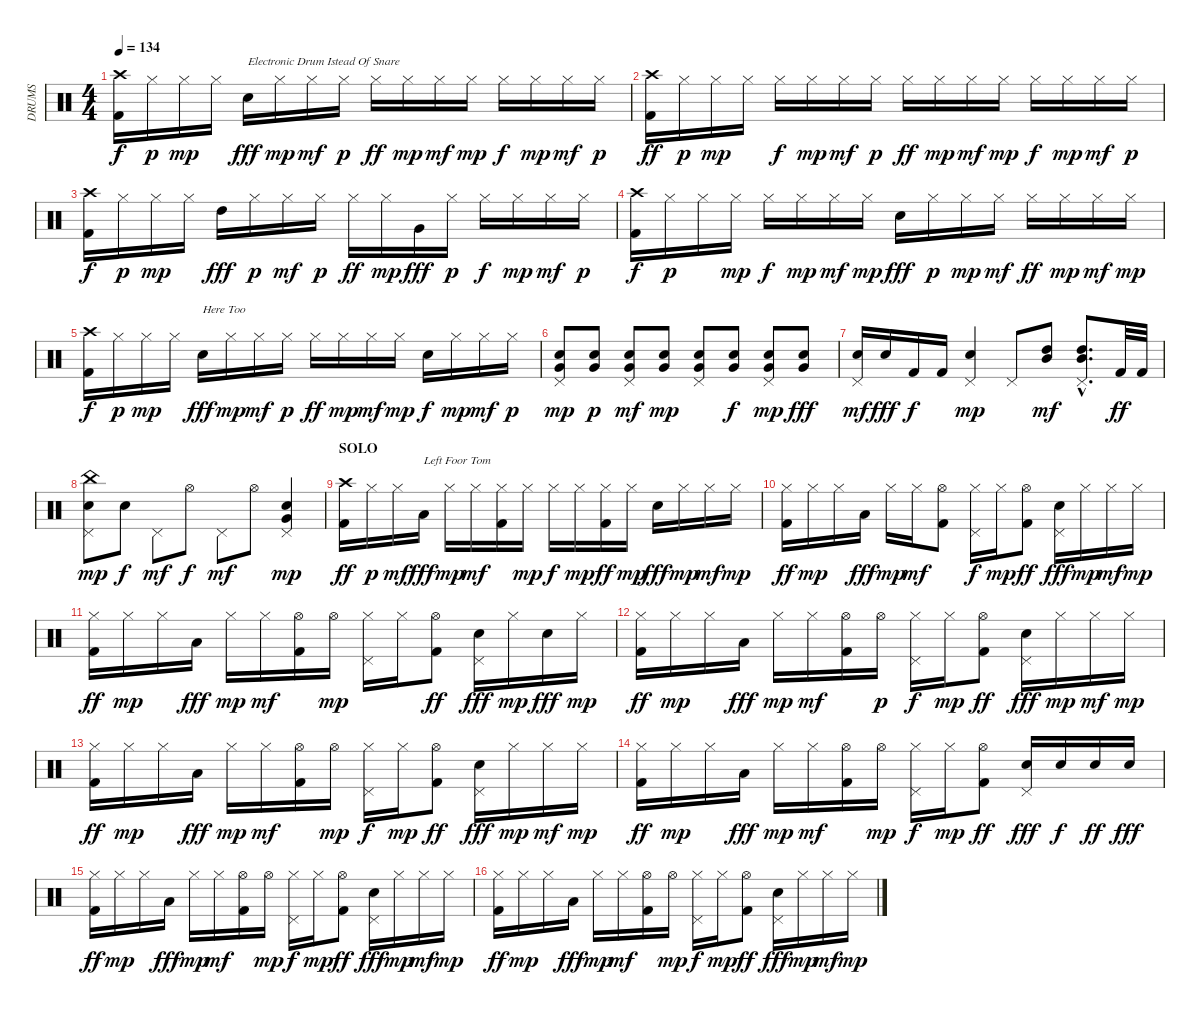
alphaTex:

\track ("DRUMS" "DRUMS") {instrument percussion}
\staff {score}
\articulation defaults
\ts (4 4)
\tempo 134
\clef neutral
\ks c
("Crash high (hit)" "Kick (hit) 2").16{dy f} "Hi-Hat (closed)".16{dy p} "Hi-Hat (closed)".16{dy mp} "Hi-Hat (closed)".16 "Snare (hit) 2".16{txt "Electronic Drum Istead Of Snare" dy fff} "Hi-Hat (closed)".16{dy mp} "Hi-Hat (closed)".16{dy mf} "Hi-Hat (closed)".16{dy p} "Hi-Hat (closed)".16{dy ff} "Hi-Hat (closed)".16{dy mp} "Hi-Hat (closed)".16{dy mf} "Hi-Hat (closed)".16{dy mp} "Hi-Hat (closed)".16{dy f} "Hi-Hat (closed)".16{dy mp} "Hi-Hat (closed)".16{dy mf} "Hi-Hat (closed)".16{dy p} |
("Crash high (hit)" "Kick (hit) 2").16{dy ff} "Hi-Hat (closed)".16{dy p} "Hi-Hat (closed)".16{dy mp} "Hi-Hat (closed)".16 "Hi-Hat (closed)".16{dy f} "Hi-Hat (closed)".16{dy mp} "Hi-Hat (closed)".16{dy mf} "Hi-Hat (closed)".16{dy p} "Hi-Hat (closed)".16{dy ff} "Hi-Hat (closed)".16{dy mp} "Hi-Hat (closed)".16{dy mf} "Hi-Hat (closed)".16{dy mp} "Hi-Hat (closed)".16{dy f} "Hi-Hat (closed)".16{dy mp} "Hi-Hat (closed)".16{dy mf} "Hi-Hat (closed)".16{dy p} |
("Crash high (hit)" "Kick (hit) 2").16{dy f} "Hi-Hat (closed)".16{dy p} "Hi-Hat (closed)".16{dy mp} "Hi-Hat (closed)".16 "High Tom (hit)".16{dy fff} "Hi-Hat (closed)".16{dy p} "Hi-Hat (closed)".16{dy mf} "Hi-Hat (closed)".16{dy p} "Hi-Hat (closed)".16{dy ff} "Hi-Hat (closed)".16{dy mp} "Very Low Tom (hit)".16{dy fff} "Hi-Hat (closed)".16{dy p} "Hi-Hat (closed)".16{dy f} "Hi-Hat (closed)".16{dy mp} "Hi-Hat (closed)".16{dy mf} "Hi-Hat (closed)".16{dy p} |
("Crash high (hit)" "Kick (hit) 2").16{dy f} "Hi-Hat (closed)".16{dy p} "Hi-Hat (closed)".16 "Hi-Hat (closed)".16{dy mp} "Hi-Hat (closed)".16{dy f} "Hi-Hat (closed)".16{dy mp} "Hi-Hat (closed)".16{dy mf} "Hi-Hat (closed)".16{dy mp} "Electric Snare (hit)".16{dy fff} "Hi-Hat (closed)".16{dy p} "Hi-Hat (closed)".16{dy mp} "Hi-Hat (closed)".16{dy mf} "Hi-Hat (closed)".16{dy ff} "Hi-Hat (closed)".16{dy mp} "Hi-Hat (closed)".16{dy mf} "Hi-Hat (closed)".16{dy mp} |
("Crash high (hit)" "Kick (hit) 2").16{dy f} "Hi-Hat (closed)".16{dy p} "Hi-Hat (closed)".16{dy mp} "Hi-Hat (closed)".16 "Snare (hit) 2".16{txt "Here Too" dy fff} "Hi-Hat (closed)".16{dy mp} "Hi-Hat (closed)".16{dy mf} "Hi-Hat (closed)".16{dy p} "Hi-Hat (closed)".16{dy ff} "Hi-Hat (closed)".16{dy mp} "Hi-Hat (closed)".16{dy mf} "Hi-Hat (closed)".16{dy mp} "Snare (hit) 2".16{dy f} "Hi-Hat (closed)".16{dy mp} "Hi-Hat (closed)".16{dy mf} "Hi-Hat (closed)".16{dy p} |
("Electric Snare (hit)" "Very Low Tom (hit)" "Pedal Hi-Hat (hit)").8{dy mp} ("Electric Snare (hit)" "Very Low Tom (hit)").8{dy p} ("Electric Snare (hit)" "Very Low Tom (hit)" "Pedal Hi-Hat (hit)").8{dy mf} ("Electric Snare (hit)" "Very Low Tom (hit)").8{dy mp} ("Electric Snare (hit)" "Very Low Tom (hit)" "Pedal Hi-Hat (hit)").8 ("Electric Snare (hit)" "Very Low Tom (hit)").8{dy f} ("Electric Snare (hit)" "Very Low Tom (hit)" "Pedal Hi-Hat (hit)").8{dy mp} ("Electric Snare (hit)" "Very Low Tom (hit)").8{dy fff} |
("Electric Snare (hit)" "Pedal Hi-Hat (hit)").16{dy mf} "Electric Snare (hit)".16{dy fff} "Kick (hit) 2".16{dy f} "Kick (hit) 2".16 ("Electric Snare (hit)" "Pedal Hi-Hat (hit)").4{dy mp} "Pedal Hi-Hat (hit)".8 ("High Tom (hit)" "Mid Tom (hit)").8{dy mf} ("High Tom (hit)"{hac} "Mid Tom (hit)"{hac} "Pedal Hi-Hat (hit)"{hac}).8{d} "Kick (hit) 2".32{dy ff} "Kick (hit) 2".32 |
("China (hit)" "Electric Snare (hit)" "Pedal Hi-Hat (hit)").8{dy mp} "Electric Snare (hit)".8{dy f} "Pedal Hi-Hat (hit)".8{dy mf} "Hi-Hat (open)".8{dy f} "Pedal Hi-Hat (hit)".8{dy mf} "Hi-Hat (open)".8 ("Electric Snare (hit)" "Very Low Tom (hit)" "Pedal Hi-Hat (hit)").4{dy mp} |
\section ("" "SOLO")
("Crash high (hit)" "Kick (hit) 2").16{dy ff} "Hi-Hat (closed)".16{dy p} "Hi-Hat (closed)".16{dy mf} "Low Floor Tom (hit)".16{txt "Left Foor Tom" dy fff balance 0} "Hi-Hat (closed)".16{dy mp balance 8} "Hi-Hat (closed)".16{dy mf} ("Hi-Hat (closed)" "Kick (hit) 2").16 "Hi-Hat (closed)".16{dy mp} "Hi-Hat (closed)".16{dy f} "Hi-Hat (closed)".16{dy mp} ("Hi-Hat (closed)" "Kick (hit) 2").16{dy ff} "Hi-Hat (closed)".16{dy mp} "Electric Snare (hit)".16{dy fff} "Hi-Hat (closed)".16{dy mp} "Hi-Hat (closed)".16{dy mf} "Hi-Hat (closed)".16{dy mp} |
("Hi-Hat (closed)" "Kick (hit) 2").16{dy ff} "Hi-Hat (closed)".16{dy mp} "Hi-Hat (closed)".16 "Low Floor Tom (hit)".16{dy fff balance 0} "Hi-Hat (closed)".16{dy mp balance 8} "Hi-Hat (closed)".16{dy mf} ("Hi-Hat (open)" "Kick (hit) 2").8 ("Hi-Hat (closed)" "Pedal Hi-Hat (hit)").16{dy f} "Hi-Hat (closed)".16{dy mp} ("Hi-Hat (open)" "Kick (hit) 2").8{dy ff} ("Electric Snare (hit)" "Pedal Hi-Hat (hit)").16{dy fff} "Hi-Hat (closed)".16{dy mp} "Hi-Hat (closed)".16{dy mf} "Hi-Hat (closed)".16{dy mp} |
("Hi-Hat (closed)" "Kick (hit) 2").16{dy ff} "Hi-Hat (closed)".16{dy mp} "Hi-Hat (closed)".16 "Low Floor Tom (hit)".16{dy fff balance 0} "Hi-Hat (closed)".16{dy mp balance 8} "Hi-Hat (closed)".16{dy mf} ("Hi-Hat (open)" "Kick (hit) 2").16 "Hi-Hat (open)".16{dy mp} ("Hi-Hat (closed)" "Pedal Hi-Hat (hit)").16 "Hi-Hat (closed)".16 ("Hi-Hat (open)" "Kick (hit) 2").8{dy ff} ("Electric Snare (hit)" "Pedal Hi-Hat (hit)").16{dy fff} "Hi-Hat (closed)".16{dy mp} "Electric Snare (hit)".16{dy fff} "Hi-Hat (closed)".16{dy mp} |
("Hi-Hat (closed)" "Kick (hit) 2").16{dy ff} "Hi-Hat (closed)".16{dy mp} "Hi-Hat (closed)".16 "Low Floor Tom (hit)".16{dy fff balance 0} "Hi-Hat (closed)".16{dy mp balance 8} "Hi-Hat (closed)".16{dy mf} ("Hi-Hat (open)" "Kick (hit) 2").16 "Hi-Hat (open)".16{dy p} ("Hi-Hat (closed)" "Pedal Hi-Hat (hit)").16{dy f} "Hi-Hat (closed)".16{dy mp} ("Hi-Hat (open)" "Kick (hit) 2").8{dy ff} ("Electric Snare (hit)" "Pedal Hi-Hat (hit)").16{dy fff} "Hi-Hat (closed)".16{dy mp} "Hi-Hat (closed)".16{dy mf} "Hi-Hat (closed)".16{dy mp} |
("Hi-Hat (closed)" "Kick (hit) 2").16{dy ff} "Hi-Hat (closed)".16{dy mp} "Hi-Hat (closed)".16 "Low Floor Tom (hit)".16{dy fff balance 0} "Hi-Hat (closed)".16{dy mp balance 8} "Hi-Hat (closed)".16{dy mf} ("Hi-Hat (open)" "Kick (hit) 2").16 "Hi-Hat (open)".16{dy mp} ("Hi-Hat (closed)" "Pedal Hi-Hat (hit)").16{dy f} "Hi-Hat (closed)".16{dy mp} ("Hi-Hat (open)" "Kick (hit) 2").8{dy ff} ("Electric Snare (hit)" "Pedal Hi-Hat (hit)").16{dy fff} "Hi-Hat (closed)".16{dy mp} "Hi-Hat (closed)".16{dy mf} "Hi-Hat (closed)".16{dy mp} |
("Hi-Hat (closed)" "Kick (hit) 2").16{dy ff} "Hi-Hat (closed)".16{dy mp} "Hi-Hat (closed)".16 "Low Floor Tom (hit)".16{dy fff balance 0} "Hi-Hat (closed)".16{dy mp balance 8} "Hi-Hat (closed)".16{dy mf} ("Hi-Hat (open)" "Kick (hit) 2").16 "Hi-Hat (open)".16{dy mp} ("Hi-Hat (closed)" "Pedal Hi-Hat (hit)").16{dy f} "Hi-Hat (closed)".16{dy mp} ("Hi-Hat (open)" "Kick (hit) 2").8{dy ff} ("Electric Snare (hit)" "Pedal Hi-Hat (hit)").16{dy fff} "Electric Snare (hit)".16{dy f} "Electric Snare (hit)".16{dy ff} "Electric Snare (hit)".16{dy fff} |
("Hi-Hat (closed)" "Kick (hit) 2").16{dy ff} "Hi-Hat (closed)".16{dy mp} "Hi-Hat (closed)".16 "Low Floor Tom (hit)".16{dy fff balance 0} "Hi-Hat (closed)".16{dy mp balance 8} "Hi-Hat (closed)".16{dy mf} ("Hi-Hat (open)" "Kick (hit) 2").16 "Hi-Hat (open)".16{dy mp} ("Hi-Hat (closed)" "Pedal Hi-Hat (hit)").16{dy f} "Hi-Hat (closed)".16{dy mp} ("Hi-Hat (open)" "Kick (hit) 2").8{dy ff} ("Electric Snare (hit)" "Pedal Hi-Hat (hit)").16{dy fff} "Hi-Hat (closed)".16{dy mp} "Hi-Hat (closed)".16{dy mf} "Hi-Hat (closed)".16{dy mp} |
("Hi-Hat (closed)" "Kick (hit) 2").16{dy ff} "Hi-Hat (closed)".16{dy mp} "Hi-Hat (closed)".16 "Low Floor Tom (hit)".16{dy fff balance 0} "Hi-Hat (closed)".16{dy mp balance 8} "Hi-Hat (closed)".16{dy mf} ("Hi-Hat (open)" "Kick (hit) 2").16 "Hi-Hat (open)".16{dy mp} ("Hi-Hat (closed)" "Pedal Hi-Hat (hit)").16{dy f} "Hi-Hat (closed)".16{dy mp} ("Hi-Hat (open)" "Kick (hit) 2").8{dy ff} ("Electric Snare (hit)" "Pedal Hi-Hat (hit)").16{dy fff} "Hi-Hat (closed)".16{dy mp} "Hi-Hat (closed)".16{dy mf} "Hi-Hat (closed)".16{dy mp}
